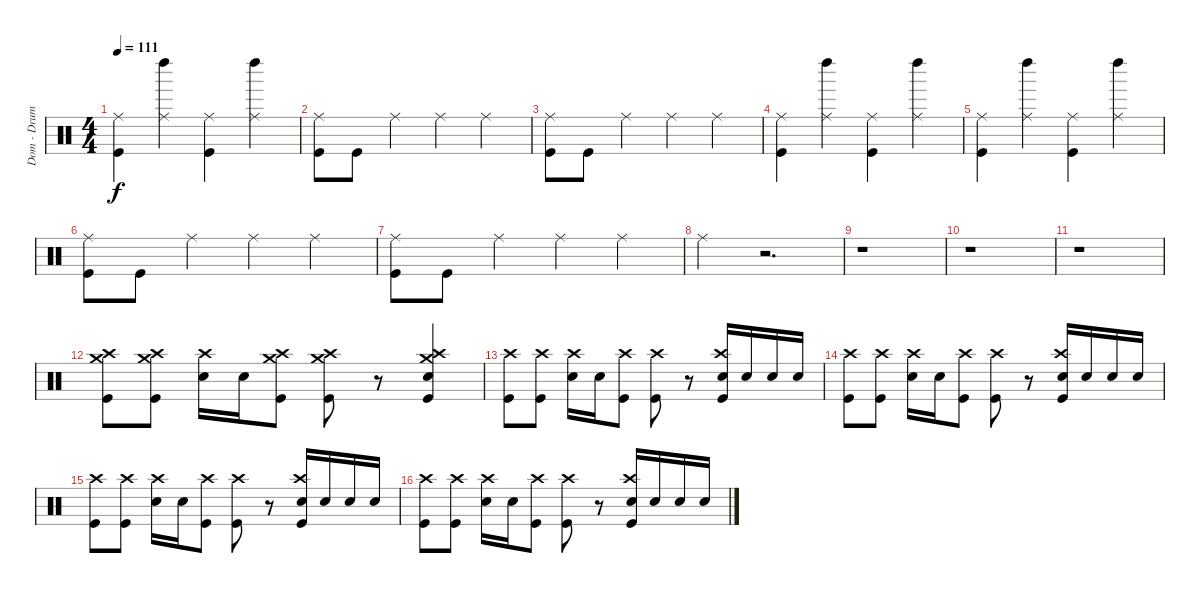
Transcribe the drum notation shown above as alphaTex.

\track ("Dom - Drums" "Dom - Drum") {instrument percussion}
\staff {score}
\articulation defaults
\ts (4 4)
\tempo 111
\clef neutral
\ks c
("Ride (middle)" "Kick (hit)").4{dy f} ("Ride (middle)" "Left Maraca (hit)").4 ("Ride (middle)" "Kick (hit)").4 ("Ride (middle)" "Left Maraca (hit)").4 |
("Ride (middle)" "Kick (hit)").8 "Kick (hit)".8 "Ride (middle)".4 "Ride (middle)".4 "Ride (middle)".4 |
("Ride (middle)" "Kick (hit)").8 "Kick (hit)".8 "Ride (middle)".4 "Ride (middle)".4 "Ride (middle)".4 |
("Ride (middle)" "Kick (hit)").4 ("Ride (middle)" "Left Maraca (hit)").4 ("Ride (middle)" "Kick (hit)").4 ("Ride (middle)" "Left Maraca (hit)").4 |
("Ride (middle)" "Kick (hit)").4 ("Ride (middle)" "Left Maraca (hit)").4 ("Ride (middle)" "Kick (hit)").4 ("Ride (middle)" "Left Maraca (hit)").4 |
("Ride (middle)" "Kick (hit)").8 "Kick (hit)".8 "Ride (middle)".4 "Ride (middle)".4 "Ride (middle)".4 |
("Ride (middle)" "Kick (hit)").8 "Kick (hit)".8 "Ride (middle)".4 "Ride (middle)".4 "Ride (middle)".4 |
"Ride (middle)".4 r.2{d} |
r.1 |
r.1 |
r.1 |
("Crash high (hit)" "Crash medium (hit)" "Kick (hit)").8 ("Crash high (hit)" "Crash medium (hit)" "Kick (hit)").8 ("Crash high (hit)" "Electric Snare (hit)").16 "Electric Snare (hit)".16 ("Crash high (hit)" "Crash medium (hit)" "Kick (hit)").8 ("Crash high (hit)" "Crash medium (hit)" "Kick (hit)").8 r.8 ("Crash high (hit)" "Crash medium (hit)" "Electric Snare (hit)" "Kick (hit)").4 |
("Crash high (hit)" "Kick (hit)").8 ("Crash high (hit)" "Kick (hit)").8 ("Crash high (hit)" "Electric Snare (hit)").16 "Electric Snare (hit)".16 ("Crash high (hit)" "Kick (hit)").8 ("Crash high (hit)" "Kick (hit)").8 r.8 ("Crash high (hit)" "Electric Snare (hit)" "Kick (hit)").16 "Electric Snare (hit)".16 "Electric Snare (hit)".16 "Electric Snare (hit)".16 |
("Crash high (hit)" "Kick (hit)").8 ("Crash high (hit)" "Kick (hit)").8 ("Crash high (hit)" "Electric Snare (hit)").16 "Electric Snare (hit)".16 ("Crash high (hit)" "Kick (hit)").8 ("Crash high (hit)" "Kick (hit)").8 r.8 ("Crash high (hit)" "Electric Snare (hit)" "Kick (hit)").16 "Electric Snare (hit)".16 "Electric Snare (hit)".16 "Electric Snare (hit)".16 |
("Crash high (hit)" "Kick (hit)").8 ("Crash high (hit)" "Kick (hit)").8 ("Crash high (hit)" "Electric Snare (hit)").16 "Electric Snare (hit)".16 ("Crash high (hit)" "Kick (hit)").8 ("Crash high (hit)" "Kick (hit)").8 r.8 ("Crash high (hit)" "Electric Snare (hit)" "Kick (hit)").16 "Electric Snare (hit)".16 "Electric Snare (hit)".16 "Electric Snare (hit)".16 |
("Crash high (hit)" "Kick (hit)").8 ("Crash high (hit)" "Kick (hit)").8 ("Crash high (hit)" "Electric Snare (hit)").16 "Electric Snare (hit)".16 ("Crash high (hit)" "Kick (hit)").8 ("Crash high (hit)" "Kick (hit)").8 r.8 ("Crash high (hit)" "Electric Snare (hit)" "Kick (hit)").16 "Electric Snare (hit)".16 "Electric Snare (hit)".16 "Electric Snare (hit)".16
